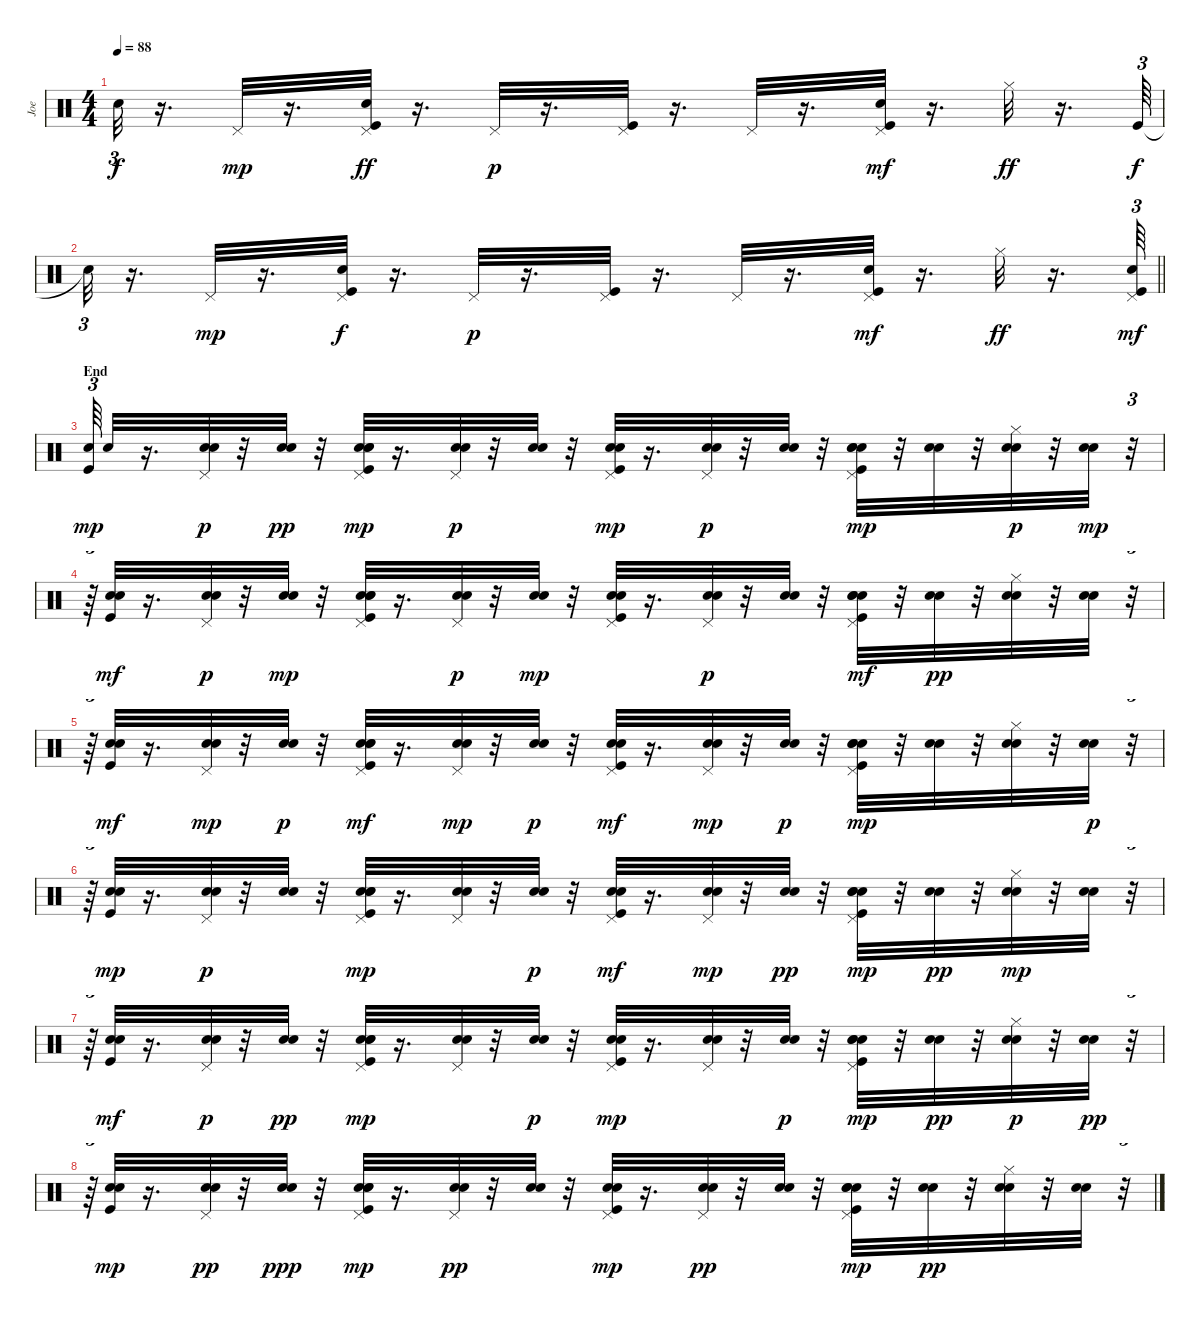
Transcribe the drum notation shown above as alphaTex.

\track ("Joe" "Joe") {instrument percussion}
\staff {score}
\articulation defaults
\ts (4 4)
\tempo 88
\clef neutral
\ks c "Snare (hit)"{t}.32{tu (3 2) dy f}
r.16{d} "Pedal Hi-Hat (hit)".32{dy mp} r.16{d} ("Pedal Hi-Hat (hit)" "Kick (hit)" "Electric Snare (hit)").32{dy ff} r.16{d} "Pedal Hi-Hat (hit)".32{dy p} r.16{d} ("Kick (hit)" "Pedal Hi-Hat (hit)").32 r.16{d} "Pedal Hi-Hat (hit)".32 r.16{d} ("Kick (hit)" "Electric Snare (hit)" "Pedal Hi-Hat (hit)").32{dy mf} r.16{d} "Hi-Hat (closed)".32{dy ff} r.16{d} "Kick (hit)".64{tu (3 2) dy f} |
\barLineRight lightlight "Snare (hit)"{t}.32{tu (3 2)}
r.16{d} "Pedal Hi-Hat (hit)".32{dy mp} r.16{d} ("Pedal Hi-Hat (hit)" "Kick (hit)" "Electric Snare (hit)").32{dy f} r.16{d} "Pedal Hi-Hat (hit)".32{dy p} r.16{d} ("Kick (hit)" "Pedal Hi-Hat (hit)").32 r.16{d} "Pedal Hi-Hat (hit)".32 r.16{d} ("Kick (hit)" "Electric Snare (hit)" "Pedal Hi-Hat (hit)").32{dy mf} r.16{d} "Hi-Hat (closed)".32{dy ff} r.16{d} ("Snare (hit) 2" "Kick (hit)" "Pedal Hi-Hat (hit)").64{tu (3 2) dy mf} |
\section ("" "End")
("Snare (hit) 2" "Kick (hit)").64{tu (3 2) dy mp} "Snare (hit) 2".32 r.16{d} ("Pedal Hi-Hat (hit)" "Snare (hit) 2" "Snare (hit) 2").32{dy p} r.32 ("Snare (hit) 2" "Snare (hit) 2").32{dy pp} r.32 ("Pedal Hi-Hat (hit)" "Kick (hit)" "Electric Snare (hit)" "Snare (hit) 2" "Snare (hit) 2").32{dy mp} r.16{d} ("Pedal Hi-Hat (hit)" "Snare (hit) 2" "Snare (hit) 2").32{dy p} r.32 ("Snare (hit) 2" "Snare (hit) 2").32 r.32 ("Kick (hit)" "Pedal Hi-Hat (hit)" "Snare (hit) 2" "Snare (hit) 2").32{dy mp} r.16{d} ("Pedal Hi-Hat (hit)" "Snare (hit) 2" "Snare (hit) 2").32{dy p} r.32 ("Snare (hit) 2" "Snare (hit) 2").32 r.32 ("Kick (hit)" "Electric Snare (hit)" "Pedal Hi-Hat (hit)" "Snare (hit) 2" "Snare (hit) 2").32{dy mp} r.32 ("Snare (hit) 2" "Snare (hit) 2").32 r.32 ("Hi-Hat (closed)" "Snare (hit) 2" "Snare (hit) 2").32{dy p} r.32 ("Snare (hit) 2" "Snare (hit) 2").32{dy mp} r.32{tu (3 2)} |
r.64{tu (3 2)} ("Kick (hit)" "Snare (hit) 2" "Snare (hit) 2").32{dy mf} r.16{d} ("Pedal Hi-Hat (hit)" "Snare (hit) 2" "Snare (hit) 2").32{dy p} r.32 ("Snare (hit) 2" "Snare (hit) 2").32{dy mp} r.32 ("Pedal Hi-Hat (hit)" "Kick (hit)" "Electric Snare (hit)" "Snare (hit) 2" "Snare (hit) 2").32 r.16{d} ("Pedal Hi-Hat (hit)" "Snare (hit) 2" "Snare (hit) 2").32{dy p} r.32 ("Snare (hit) 2" "Snare (hit) 2").32{dy mp} r.32 ("Kick (hit)" "Pedal Hi-Hat (hit)" "Snare (hit) 2" "Snare (hit) 2").32 r.16{d} ("Pedal Hi-Hat (hit)" "Snare (hit) 2" "Snare (hit) 2").32{dy p} r.32 ("Snare (hit) 2" "Snare (hit) 2").32 r.32 ("Kick (hit)" "Electric Snare (hit)" "Pedal Hi-Hat (hit)" "Snare (hit) 2" "Snare (hit) 2").32{dy mf} r.32 ("Snare (hit) 2" "Snare (hit) 2").32{dy pp} r.32 ("Hi-Hat (closed)" "Snare (hit) 2" "Snare (hit) 2").32 r.32 ("Snare (hit) 2" "Snare (hit) 2").32 r.32{tu (3 2)} |
r.64{tu (3 2)} ("Kick (hit)" "Snare (hit) 2" "Snare (hit) 2").32{dy mf} r.16{d} ("Pedal Hi-Hat (hit)" "Snare (hit) 2" "Snare (hit) 2").32{dy mp} r.32 ("Snare (hit) 2" "Snare (hit) 2").32{dy p} r.32 ("Pedal Hi-Hat (hit)" "Kick (hit)" "Electric Snare (hit)" "Snare (hit) 2" "Snare (hit) 2").32{dy mf} r.16{d} ("Pedal Hi-Hat (hit)" "Snare (hit) 2" "Snare (hit) 2").32{dy mp} r.32 ("Snare (hit) 2" "Snare (hit) 2").32{dy p} r.32 ("Kick (hit)" "Pedal Hi-Hat (hit)" "Snare (hit) 2" "Snare (hit) 2").32{dy mf} r.16{d} ("Pedal Hi-Hat (hit)" "Snare (hit) 2" "Snare (hit) 2").32{dy mp} r.32 ("Snare (hit) 2" "Snare (hit) 2").32{dy p} r.32 ("Kick (hit)" "Electric Snare (hit)" "Pedal Hi-Hat (hit)" "Snare (hit) 2" "Snare (hit) 2").32{dy mp} r.32 ("Snare (hit) 2" "Snare (hit) 2").32 r.32 ("Hi-Hat (closed)" "Snare (hit) 2" "Snare (hit) 2").32 r.32 ("Snare (hit) 2" "Snare (hit) 2").32{dy p} r.32{tu (3 2)} |
r.64{tu (3 2)} ("Kick (hit)" "Snare (hit) 2" "Snare (hit) 2").32{dy mp} r.16{d} ("Pedal Hi-Hat (hit)" "Snare (hit) 2" "Snare (hit) 2").32{dy p} r.32 ("Snare (hit) 2" "Snare (hit) 2").32 r.32 ("Pedal Hi-Hat (hit)" "Kick (hit)" "Electric Snare (hit)" "Snare (hit) 2" "Snare (hit) 2").32{dy mp} r.16{d} ("Pedal Hi-Hat (hit)" "Snare (hit) 2" "Snare (hit) 2").32 r.32 ("Snare (hit) 2" "Snare (hit) 2").32{dy p} r.32 ("Kick (hit)" "Pedal Hi-Hat (hit)" "Snare (hit) 2" "Snare (hit) 2").32{dy mf} r.16{d} ("Pedal Hi-Hat (hit)" "Snare (hit) 2" "Snare (hit) 2").32{dy mp} r.32 ("Snare (hit) 2" "Snare (hit) 2").32{dy pp} r.32 ("Kick (hit)" "Electric Snare (hit)" "Pedal Hi-Hat (hit)" "Snare (hit) 2" "Snare (hit) 2").32{dy mp} r.32 ("Snare (hit) 2" "Snare (hit) 2").32{dy pp} r.32 ("Hi-Hat (closed)" "Snare (hit) 2" "Snare (hit) 2").32{dy mp} r.32 ("Snare (hit) 2" "Snare (hit) 2").32 r.32{tu (3 2)} |
r.64{tu (3 2)} ("Kick (hit)" "Snare (hit) 2" "Snare (hit) 2").32{dy mf} r.16{d} ("Pedal Hi-Hat (hit)" "Snare (hit) 2" "Snare (hit) 2").32{dy p} r.32 ("Snare (hit) 2" "Snare (hit) 2").32{dy pp} r.32 ("Pedal Hi-Hat (hit)" "Kick (hit)" "Electric Snare (hit)" "Snare (hit) 2" "Snare (hit) 2").32{dy mp} r.16{d} ("Pedal Hi-Hat (hit)" "Snare (hit) 2" "Snare (hit) 2").32 r.32 ("Snare (hit) 2" "Snare (hit) 2").32{dy p} r.32 ("Kick (hit)" "Pedal Hi-Hat (hit)" "Snare (hit) 2" "Snare (hit) 2").32{dy mp} r.16{d} ("Pedal Hi-Hat (hit)" "Snare (hit) 2" "Snare (hit) 2").32 r.32 ("Snare (hit) 2" "Snare (hit) 2").32{dy p} r.32 ("Kick (hit)" "Electric Snare (hit)" "Pedal Hi-Hat (hit)" "Snare (hit) 2" "Snare (hit) 2").32{dy mp} r.32 ("Snare (hit) 2" "Snare (hit) 2").32{dy pp} r.32 ("Hi-Hat (closed)" "Snare (hit) 2" "Snare (hit) 2").32{dy p} r.32 ("Snare (hit) 2" "Snare (hit) 2").32{dy pp} r.32{tu (3 2)} |
r.64{tu (3 2)} ("Kick (hit)" "Snare (hit) 2" "Snare (hit) 2").32{dy mp} r.16{d} ("Pedal Hi-Hat (hit)" "Snare (hit) 2" "Snare (hit) 2").32{dy pp} r.32 ("Snare (hit) 2" "Snare (hit) 2").32{dy ppp} r.32 ("Pedal Hi-Hat (hit)" "Kick (hit)" "Electric Snare (hit)" "Snare (hit) 2" "Snare (hit) 2").32{dy mp} r.16{d} ("Pedal Hi-Hat (hit)" "Snare (hit) 2" "Snare (hit) 2").32{dy pp} r.32 ("Snare (hit) 2" "Snare (hit) 2").32 r.32 ("Kick (hit)" "Pedal Hi-Hat (hit)" "Snare (hit) 2" "Snare (hit) 2").32{dy mp} r.16{d} ("Pedal Hi-Hat (hit)" "Snare (hit) 2" "Snare (hit) 2").32{dy pp} r.32 ("Snare (hit) 2" "Snare (hit) 2").32 r.32 ("Kick (hit)" "Electric Snare (hit)" "Pedal Hi-Hat (hit)" "Snare (hit) 2" "Snare (hit) 2").32{dy mp} r.32 ("Snare (hit) 2" "Snare (hit) 2").32{dy pp} r.32 ("Hi-Hat (closed)" "Snare (hit) 2" "Snare (hit) 2").32 r.32 ("Snare (hit) 2" "Snare (hit) 2").32 r.32{tu (3 2)}
